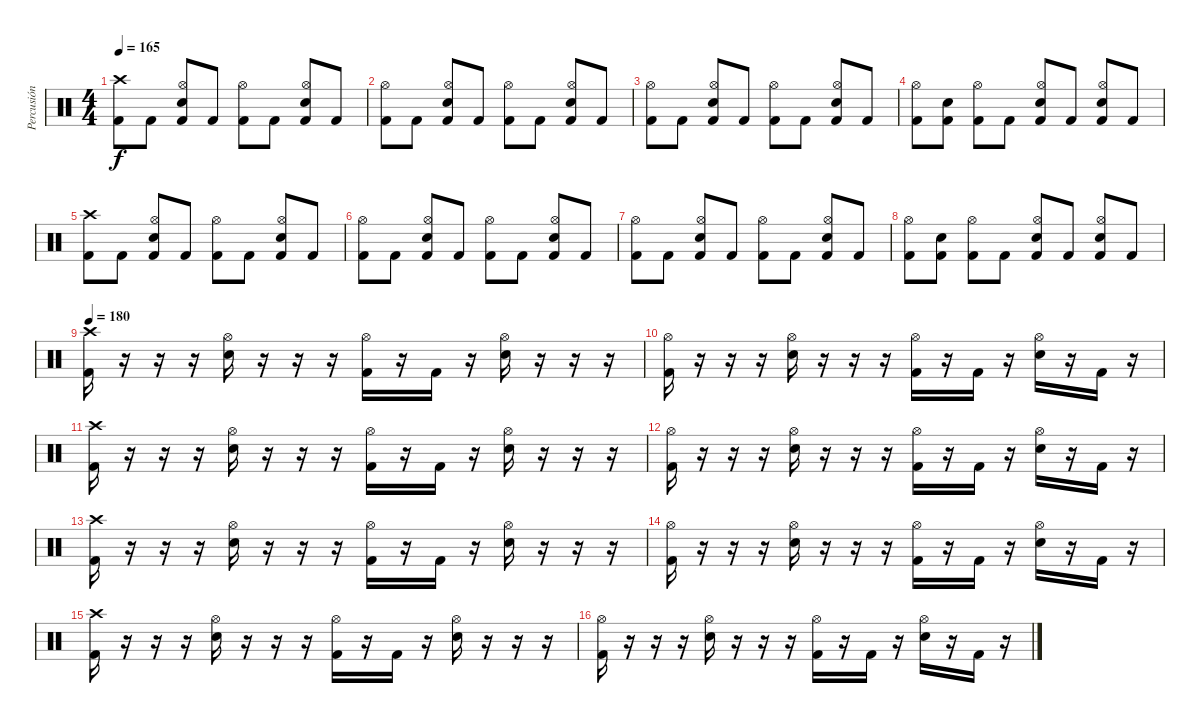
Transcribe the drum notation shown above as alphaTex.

\track ("Percusión" "Percusión") {instrument percussion}
\staff {score}
\articulation defaults
\ts (4 4)
\tempo 165
\clef neutral
\ks c
("Crash high (hit)" "Kick (hit) 2").8{dy f} "Kick (hit) 2".8 ("Hi-Hat (open)" "Electric Snare (hit)" "Kick (hit) 2").8 "Kick (hit) 2".8 ("Hi-Hat (open)" "Kick (hit) 2").8 "Kick (hit) 2".8 ("Hi-Hat (open)" "Electric Snare (hit)" "Kick (hit) 2").8 "Kick (hit) 2".8 |
("Hi-Hat (open)" "Kick (hit) 2").8 "Kick (hit) 2".8 ("Hi-Hat (open)" "Electric Snare (hit)" "Kick (hit) 2").8 "Kick (hit) 2".8 ("Hi-Hat (open)" "Kick (hit) 2").8 "Kick (hit) 2".8 ("Hi-Hat (open)" "Electric Snare (hit)" "Kick (hit) 2").8 "Kick (hit) 2".8 |
("Hi-Hat (open)" "Kick (hit) 2").8 "Kick (hit) 2".8 ("Hi-Hat (open)" "Electric Snare (hit)" "Kick (hit) 2").8 "Kick (hit) 2".8 ("Hi-Hat (open)" "Kick (hit) 2").8 "Kick (hit) 2".8 ("Hi-Hat (open)" "Electric Snare (hit)" "Kick (hit) 2").8 "Kick (hit) 2".8 |
("Hi-Hat (open)" "Kick (hit) 2").8 ("Electric Snare (hit)" "Kick (hit) 2").8 ("Hi-Hat (open)" "Kick (hit) 2").8 "Kick (hit) 2".8 ("Hi-Hat (open)" "Electric Snare (hit)" "Kick (hit) 2").8 "Kick (hit) 2".8 ("Hi-Hat (open)" "Electric Snare (hit)" "Kick (hit) 2").8 "Kick (hit) 2".8 |
("Crash high (hit)" "Kick (hit) 2").8 "Kick (hit) 2".8 ("Hi-Hat (open)" "Electric Snare (hit)" "Kick (hit) 2").8 "Kick (hit) 2".8 ("Hi-Hat (open)" "Kick (hit) 2").8 "Kick (hit) 2".8 ("Hi-Hat (open)" "Electric Snare (hit)" "Kick (hit) 2").8 "Kick (hit) 2".8 |
("Hi-Hat (open)" "Kick (hit) 2").8 "Kick (hit) 2".8 ("Hi-Hat (open)" "Electric Snare (hit)" "Kick (hit) 2").8 "Kick (hit) 2".8 ("Hi-Hat (open)" "Kick (hit) 2").8 "Kick (hit) 2".8 ("Hi-Hat (open)" "Electric Snare (hit)" "Kick (hit) 2").8 "Kick (hit) 2".8 |
("Hi-Hat (open)" "Kick (hit) 2").8 "Kick (hit) 2".8 ("Hi-Hat (open)" "Electric Snare (hit)" "Kick (hit) 2").8 "Kick (hit) 2".8 ("Hi-Hat (open)" "Kick (hit) 2").8 "Kick (hit) 2".8 ("Hi-Hat (open)" "Electric Snare (hit)" "Kick (hit) 2").8 "Kick (hit) 2".8 |
("Hi-Hat (open)" "Kick (hit) 2").8 ("Electric Snare (hit)" "Kick (hit) 2").8 ("Hi-Hat (open)" "Kick (hit) 2").8 "Kick (hit) 2".8 ("Hi-Hat (open)" "Electric Snare (hit)" "Kick (hit) 2").8 "Kick (hit) 2".8 ("Hi-Hat (open)" "Electric Snare (hit)" "Kick (hit) 2").8 "Kick (hit) 2".8 |
\tempo 180
("Crash high (hit)" "Kick (hit) 2").16 r.16 r.16 r.16 ("Hi-Hat (open)" "Electric Snare (hit)").16 r.16 r.16 r.16 ("Hi-Hat (open)" "Kick (hit) 2").16 r.16 "Kick (hit) 2".16 r.16 ("Hi-Hat (open)" "Electric Snare (hit)").16 r.16 r.16 r.16 |
("Hi-Hat (open)" "Kick (hit) 2").16 r.16 r.16 r.16 ("Hi-Hat (open)" "Electric Snare (hit)").16 r.16 r.16 r.16 ("Hi-Hat (open)" "Kick (hit) 2").16 r.16 "Kick (hit) 2".16 r.16 ("Hi-Hat (open)" "Electric Snare (hit)").16 r.16 "Kick (hit) 2".16 r.16 |
("Crash high (hit)" "Kick (hit) 2").16 r.16 r.16 r.16 ("Hi-Hat (open)" "Electric Snare (hit)").16 r.16 r.16 r.16 ("Hi-Hat (open)" "Kick (hit) 2").16 r.16 "Kick (hit) 2".16 r.16 ("Hi-Hat (open)" "Electric Snare (hit)").16 r.16 r.16 r.16 |
("Hi-Hat (open)" "Kick (hit) 2").16 r.16 r.16 r.16 ("Hi-Hat (open)" "Electric Snare (hit)").16 r.16 r.16 r.16 ("Hi-Hat (open)" "Kick (hit) 2").16 r.16 "Kick (hit) 2".16 r.16 ("Hi-Hat (open)" "Electric Snare (hit)").16 r.16 "Kick (hit) 2".16 r.16 |
("Crash high (hit)" "Kick (hit) 2").16 r.16 r.16 r.16 ("Hi-Hat (open)" "Electric Snare (hit)").16 r.16 r.16 r.16 ("Hi-Hat (open)" "Kick (hit) 2").16 r.16 "Kick (hit) 2".16 r.16 ("Hi-Hat (open)" "Electric Snare (hit)").16 r.16 r.16 r.16 |
("Hi-Hat (open)" "Kick (hit) 2").16 r.16 r.16 r.16 ("Hi-Hat (open)" "Electric Snare (hit)").16 r.16 r.16 r.16 ("Hi-Hat (open)" "Kick (hit) 2").16 r.16 "Kick (hit) 2".16 r.16 ("Hi-Hat (open)" "Electric Snare (hit)").16 r.16 "Kick (hit) 2".16 r.16 |
("Crash high (hit)" "Kick (hit) 2").16 r.16 r.16 r.16 ("Hi-Hat (open)" "Electric Snare (hit)").16 r.16 r.16 r.16 ("Hi-Hat (open)" "Kick (hit) 2").16 r.16 "Kick (hit) 2".16 r.16 ("Hi-Hat (open)" "Electric Snare (hit)").16 r.16 r.16 r.16 |
("Hi-Hat (open)" "Kick (hit) 2").16 r.16 r.16 r.16 ("Hi-Hat (open)" "Electric Snare (hit)").16 r.16 r.16 r.16 ("Hi-Hat (open)" "Kick (hit) 2").16 r.16 "Kick (hit) 2".16 r.16 ("Hi-Hat (open)" "Electric Snare (hit)").16 r.16 "Kick (hit) 2".16 r.16
